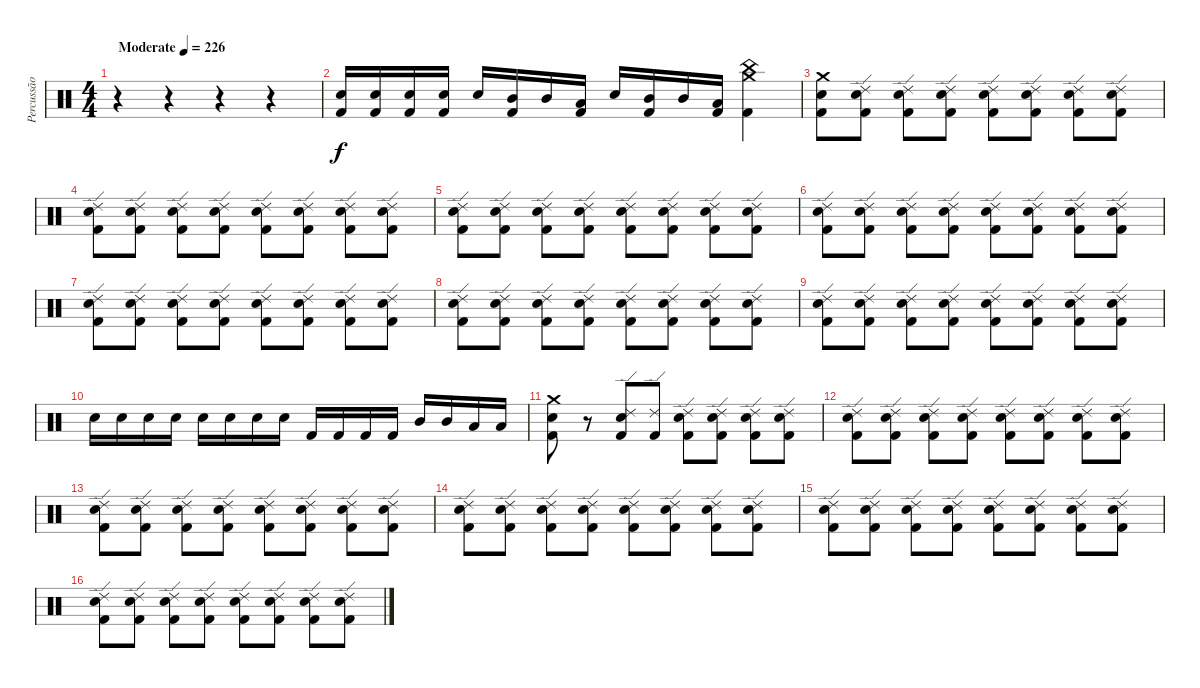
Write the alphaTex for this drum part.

\track ("Percussão" "Percussão") {instrument percussion}
\staff {score}
\articulation defaults
\ts (4 4)
\tempo (226 "Moderate")
\clef neutral
\ks c
r.4{dy f} r.4 r.4 r.4 |
("Electric Snare (hit)" "Kick (hit) 2").16 ("Electric Snare (hit)" "Kick (hit) 2").16 ("Electric Snare (hit)" "Kick (hit) 2").16 ("Electric Snare (hit)" "Kick (hit) 2").16 "Electric Snare (hit)".16 ("Mid Tom (hit)" "Kick (hit) 2").16 "Mid Tom (hit)".16 ("Low Tom (hit)" "Kick (hit) 2").16 "Electric Snare (hit)".16 ("Mid Tom (hit)" "Kick (hit) 2").16 "Mid Tom (hit)".16 ("Low Tom (hit)" "Kick (hit) 2").16 ("Crash medium (hit)" "China (hit)" "Kick (hit) 2").4 |
("Crash medium (hit)" "Electric Snare (hit)" "Kick (hit) 2").8 ("Ride (edge) 2" "Electric Snare (hit)" "Kick (hit) 2").8 ("Ride (edge) 2" "Electric Snare (hit)" "Kick (hit) 2").8 ("Ride (edge) 2" "Electric Snare (hit)" "Kick (hit) 2").8 ("Ride (edge) 2" "Electric Snare (hit)" "Kick (hit) 2").8 ("Ride (edge) 2" "Electric Snare (hit)" "Kick (hit) 2").8 ("Ride (edge) 2" "Electric Snare (hit)" "Kick (hit) 2").8 ("Ride (edge) 2" "Electric Snare (hit)" "Kick (hit) 2").8 |
("Ride (edge) 2" "Electric Snare (hit)" "Kick (hit) 2").8 ("Ride (edge) 2" "Electric Snare (hit)" "Kick (hit) 2").8 ("Ride (edge) 2" "Electric Snare (hit)" "Kick (hit) 2").8 ("Ride (edge) 2" "Electric Snare (hit)" "Kick (hit) 2").8 ("Ride (edge) 2" "Electric Snare (hit)" "Kick (hit) 2").8 ("Ride (edge) 2" "Electric Snare (hit)" "Kick (hit) 2").8 ("Ride (edge) 2" "Electric Snare (hit)" "Kick (hit) 2").8 ("Ride (edge) 2" "Electric Snare (hit)" "Kick (hit) 2").8 |
("Ride (edge) 2" "Electric Snare (hit)" "Kick (hit) 2").8 ("Ride (edge) 2" "Electric Snare (hit)" "Kick (hit) 2").8 ("Ride (edge) 2" "Electric Snare (hit)" "Kick (hit) 2").8 ("Ride (edge) 2" "Electric Snare (hit)" "Kick (hit) 2").8 ("Ride (edge) 2" "Electric Snare (hit)" "Kick (hit) 2").8 ("Ride (edge) 2" "Electric Snare (hit)" "Kick (hit) 2").8 ("Ride (edge) 2" "Electric Snare (hit)" "Kick (hit) 2").8 ("Ride (edge) 2" "Electric Snare (hit)" "Kick (hit) 2").8 |
("Ride (edge) 2" "Electric Snare (hit)" "Kick (hit) 2").8 ("Ride (edge) 2" "Electric Snare (hit)" "Kick (hit) 2").8 ("Ride (edge) 2" "Electric Snare (hit)" "Kick (hit) 2").8 ("Ride (edge) 2" "Electric Snare (hit)" "Kick (hit) 2").8 ("Ride (edge) 2" "Electric Snare (hit)" "Kick (hit) 2").8 ("Ride (edge) 2" "Electric Snare (hit)" "Kick (hit) 2").8 ("Ride (edge) 2" "Electric Snare (hit)" "Kick (hit) 2").8 ("Ride (edge) 2" "Electric Snare (hit)" "Kick (hit) 2").8 |
("Ride (edge) 2" "Electric Snare (hit)" "Kick (hit) 2").8 ("Ride (edge) 2" "Electric Snare (hit)" "Kick (hit) 2").8 ("Ride (edge) 2" "Electric Snare (hit)" "Kick (hit) 2").8 ("Ride (edge) 2" "Electric Snare (hit)" "Kick (hit) 2").8 ("Ride (edge) 2" "Electric Snare (hit)" "Kick (hit) 2").8 ("Ride (edge) 2" "Electric Snare (hit)" "Kick (hit) 2").8 ("Ride (edge) 2" "Electric Snare (hit)" "Kick (hit) 2").8 ("Ride (edge) 2" "Electric Snare (hit)" "Kick (hit) 2").8 |
("Ride (edge) 2" "Electric Snare (hit)" "Kick (hit) 2").8 ("Ride (edge) 2" "Electric Snare (hit)" "Kick (hit) 2").8 ("Ride (edge) 2" "Electric Snare (hit)" "Kick (hit) 2").8 ("Ride (edge) 2" "Electric Snare (hit)" "Kick (hit) 2").8 ("Ride (edge) 2" "Electric Snare (hit)" "Kick (hit) 2").8 ("Ride (edge) 2" "Electric Snare (hit)" "Kick (hit) 2").8 ("Ride (edge) 2" "Electric Snare (hit)" "Kick (hit) 2").8 ("Ride (edge) 2" "Electric Snare (hit)" "Kick (hit) 2").8 |
("Ride (edge) 2" "Electric Snare (hit)" "Kick (hit) 2").8 ("Ride (edge) 2" "Electric Snare (hit)" "Kick (hit) 2").8 ("Ride (edge) 2" "Electric Snare (hit)" "Kick (hit) 2").8 ("Ride (edge) 2" "Electric Snare (hit)" "Kick (hit) 2").8 ("Ride (edge) 2" "Electric Snare (hit)" "Kick (hit) 2").8 ("Ride (edge) 2" "Electric Snare (hit)" "Kick (hit) 2").8 ("Ride (edge) 2" "Electric Snare (hit)" "Kick (hit) 2").8 ("Ride (edge) 2" "Electric Snare (hit)" "Kick (hit) 2").8 |
"Electric Snare (hit)".16 "Electric Snare (hit)".16 "Electric Snare (hit)".16 "Electric Snare (hit)".16 "Electric Snare (hit)".16 "Electric Snare (hit)".16 "Electric Snare (hit)".16 "Electric Snare (hit)".16 "Kick (hit) 2".16 "Kick (hit) 2".16 "Kick (hit) 2".16 "Kick (hit) 2".16 "Mid Tom (hit)".16 "Mid Tom (hit)".16 "Low Tom (hit)".16 "Low Tom (hit)".16 |
("Crash medium (hit)" "Electric Snare (hit)" "Kick (hit) 2").8 r.8 ("Ride (edge) 2" "Electric Snare (hit)" "Kick (hit) 2").8 ("Ride (edge) 2" "Kick (hit) 2").8 ("Ride (edge) 2" "Electric Snare (hit)" "Kick (hit) 2").8 ("Ride (edge) 2" "Electric Snare (hit)" "Kick (hit) 2").8 ("Ride (edge) 2" "Electric Snare (hit)" "Kick (hit) 2").8 ("Ride (edge) 2" "Electric Snare (hit)" "Kick (hit) 2").8 |
("Ride (edge) 2" "Electric Snare (hit)" "Kick (hit) 2").8 ("Ride (edge) 2" "Electric Snare (hit)" "Kick (hit) 2").8 ("Ride (edge) 2" "Electric Snare (hit)" "Kick (hit) 2").8 ("Ride (edge) 2" "Electric Snare (hit)" "Kick (hit) 2").8 ("Ride (edge) 2" "Electric Snare (hit)" "Kick (hit) 2").8 ("Ride (edge) 2" "Electric Snare (hit)" "Kick (hit) 2").8 ("Ride (edge) 2" "Electric Snare (hit)" "Kick (hit) 2").8 ("Ride (edge) 2" "Electric Snare (hit)" "Kick (hit) 2").8 |
("Ride (edge) 2" "Electric Snare (hit)" "Kick (hit) 2").8 ("Ride (edge) 2" "Electric Snare (hit)" "Kick (hit) 2").8 ("Ride (edge) 2" "Electric Snare (hit)" "Kick (hit) 2").8 ("Ride (edge) 2" "Electric Snare (hit)" "Kick (hit) 2").8 ("Ride (edge) 2" "Electric Snare (hit)" "Kick (hit) 2").8 ("Ride (edge) 2" "Electric Snare (hit)" "Kick (hit) 2").8 ("Ride (edge) 2" "Electric Snare (hit)" "Kick (hit) 2").8 ("Ride (edge) 2" "Electric Snare (hit)" "Kick (hit) 2").8 |
("Ride (edge) 2" "Electric Snare (hit)" "Kick (hit) 2").8 ("Ride (edge) 2" "Electric Snare (hit)" "Kick (hit) 2").8 ("Ride (edge) 2" "Electric Snare (hit)" "Kick (hit) 2").8 ("Ride (edge) 2" "Electric Snare (hit)" "Kick (hit) 2").8 ("Ride (edge) 2" "Electric Snare (hit)" "Kick (hit) 2").8 ("Ride (edge) 2" "Electric Snare (hit)" "Kick (hit) 2").8 ("Ride (edge) 2" "Electric Snare (hit)" "Kick (hit) 2").8 ("Ride (edge) 2" "Electric Snare (hit)" "Kick (hit) 2").8 |
("Ride (edge) 2" "Electric Snare (hit)" "Kick (hit) 2").8 ("Ride (edge) 2" "Electric Snare (hit)" "Kick (hit) 2").8 ("Ride (edge) 2" "Electric Snare (hit)" "Kick (hit) 2").8 ("Ride (edge) 2" "Electric Snare (hit)" "Kick (hit) 2").8 ("Ride (edge) 2" "Electric Snare (hit)" "Kick (hit) 2").8 ("Ride (edge) 2" "Electric Snare (hit)" "Kick (hit) 2").8 ("Ride (edge) 2" "Electric Snare (hit)" "Kick (hit) 2").8 ("Ride (edge) 2" "Electric Snare (hit)" "Kick (hit) 2").8 |
("Ride (edge) 2" "Electric Snare (hit)" "Kick (hit) 2").8 ("Ride (edge) 2" "Electric Snare (hit)" "Kick (hit) 2").8 ("Ride (edge) 2" "Electric Snare (hit)" "Kick (hit) 2").8 ("Ride (edge) 2" "Electric Snare (hit)" "Kick (hit) 2").8 ("Ride (edge) 2" "Electric Snare (hit)" "Kick (hit) 2").8 ("Ride (edge) 2" "Electric Snare (hit)" "Kick (hit) 2").8 ("Ride (edge) 2" "Electric Snare (hit)" "Kick (hit) 2").8 ("Ride (edge) 2" "Electric Snare (hit)" "Kick (hit) 2").8
